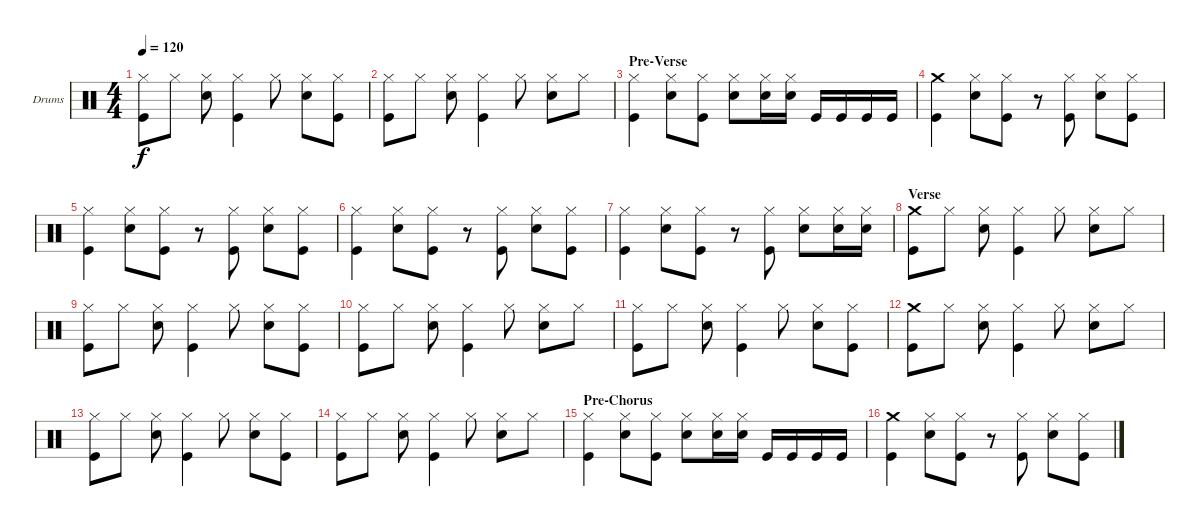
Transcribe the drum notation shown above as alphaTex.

\defaultSystemsLayout 4
\bracketExtendMode groupsimilarinstruments
\firstSystemTrackNameOrientation horizontal
\otherSystemsTrackNameOrientation horizontal
\track ("Drum" "Drums") {instrument percussion}
\staff {score}
\articulation defaults
\ts (4 4)
\tempo 120
\clef neutral
\scale
0.333333
\ks c
("Hi-Hat (closed)" "Kick (hit)").8{dy f} "Hi-Hat (closed)".8 ("Hi-Hat (closed)" "Snare (hit) 2").8 ("Hi-Hat (closed)" "Kick (hit)").4 "Hi-Hat (closed)".8 ("Hi-Hat (closed)" "Snare (hit) 2").8 ("Hi-Hat (closed)" "Kick (hit)").8 |
\scale
0.333333 ("Hi-Hat (closed)" "Kick (hit)").8 "Hi-Hat (closed)".8 ("Hi-Hat (closed)" "Snare (hit) 2").8 ("Hi-Hat (closed)" "Kick (hit)").4 "Hi-Hat (closed)".8 ("Hi-Hat (closed)" "Snare (hit) 2").8 "Hi-Hat (closed)".8 |
\section ("" "Pre-Verse")
\scale
0.333333 ("Hi-Hat (closed)" "Kick (hit)").4 ("Hi-Hat (closed)" "Snare (hit) 2").8 ("Hi-Hat (closed)" "Kick (hit)").8 ("Hi-Hat (closed)" "Snare (hit) 2").8 ("Hi-Hat (closed)" "Snare (hit) 2").16 ("Hi-Hat (closed)" "Snare (hit) 2").16 "Kick (hit)".16 "Kick (hit)".16 "Kick (hit)".16 "Kick (hit)".16 |
\scale
0.333333 ("Crash medium (hit)" "Kick (hit)").4 ("Hi-Hat (closed)" "Snare (hit) 2").8 ("Hi-Hat (closed)" "Kick (hit)").8 r.8 ("Hi-Hat (closed)" "Kick (hit)").8 ("Hi-Hat (closed)" "Snare (hit) 2").8 ("Hi-Hat (closed)" "Kick (hit)").8 |
\scale
0.333333 ("Hi-Hat (closed)" "Kick (hit)").4 ("Hi-Hat (closed)" "Snare (hit) 2").8 ("Hi-Hat (closed)" "Kick (hit)").8 r.8 ("Hi-Hat (closed)" "Kick (hit)").8 ("Hi-Hat (closed)" "Snare (hit) 2").8 ("Hi-Hat (closed)" "Kick (hit)").8 |
\scale
0.333333 ("Hi-Hat (closed)" "Kick (hit)").4 ("Hi-Hat (closed)" "Snare (hit) 2").8 ("Hi-Hat (closed)" "Kick (hit)").8 r.8 ("Hi-Hat (closed)" "Kick (hit)").8 ("Hi-Hat (closed)" "Snare (hit) 2").8 ("Hi-Hat (closed)" "Kick (hit)").8 |
\scale
0.333333 ("Hi-Hat (closed)" "Kick (hit)").4 ("Hi-Hat (closed)" "Snare (hit) 2").8 ("Hi-Hat (closed)" "Kick (hit)").8 r.8 ("Hi-Hat (closed)" "Kick (hit)").8 ("Hi-Hat (closed)" "Snare (hit) 2").8 ("Hi-Hat (closed)" "Snare (hit) 2").16 ("Hi-Hat (closed)" "Snare (hit) 2").16 |
\section ("" "Verse")
\scale
0.333333 ("Crash medium (hit)" "Kick (hit)").8 "Hi-Hat (closed)".8 ("Hi-Hat (closed)" "Snare (hit) 2").8 ("Hi-Hat (closed)" "Kick (hit)").4 "Hi-Hat (closed)".8 ("Hi-Hat (closed)" "Snare (hit) 2").8 "Hi-Hat (closed)".8 |
\scale
0.333333 ("Hi-Hat (closed)" "Kick (hit)").8 "Hi-Hat (closed)".8 ("Hi-Hat (closed)" "Snare (hit) 2").8 ("Hi-Hat (closed)" "Kick (hit)").4 "Hi-Hat (closed)".8 ("Hi-Hat (closed)" "Snare (hit) 2").8 ("Hi-Hat (closed)" "Kick (hit)").8 |
\scale
0.333333 ("Hi-Hat (closed)" "Kick (hit)").8 "Hi-Hat (closed)".8 ("Hi-Hat (closed)" "Snare (hit) 2").8 ("Hi-Hat (closed)" "Kick (hit)").4 "Hi-Hat (closed)".8 ("Hi-Hat (closed)" "Snare (hit) 2").8 "Hi-Hat (closed)".8 |
\scale
0.333333 ("Hi-Hat (closed)" "Kick (hit)").8 "Hi-Hat (closed)".8 ("Hi-Hat (closed)" "Snare (hit) 2").8 ("Hi-Hat (closed)" "Kick (hit)").4 "Hi-Hat (closed)".8 ("Hi-Hat (closed)" "Snare (hit) 2").8 ("Hi-Hat (closed)" "Kick (hit)").8 |
\scale
0.333333 ("Crash medium (hit)" "Kick (hit)").8 "Hi-Hat (closed)".8 ("Hi-Hat (closed)" "Snare (hit) 2").8 ("Hi-Hat (closed)" "Kick (hit)").4 "Hi-Hat (closed)".8 ("Hi-Hat (closed)" "Snare (hit) 2").8 "Hi-Hat (closed)".8 |
\scale
0.333333 ("Hi-Hat (closed)" "Kick (hit)").8 "Hi-Hat (closed)".8 ("Hi-Hat (closed)" "Snare (hit) 2").8 ("Hi-Hat (closed)" "Kick (hit)").4 "Hi-Hat (closed)".8 ("Hi-Hat (closed)" "Snare (hit) 2").8 ("Hi-Hat (closed)" "Kick (hit)").8 |
\scale
0.333333 ("Hi-Hat (closed)" "Kick (hit)").8 "Hi-Hat (closed)".8 ("Hi-Hat (closed)" "Snare (hit) 2").8 ("Hi-Hat (closed)" "Kick (hit)").4 "Hi-Hat (closed)".8 ("Hi-Hat (closed)" "Snare (hit) 2").8 "Hi-Hat (closed)".8 |
\section ("" "Pre-Chorus")
\scale
0.333333 ("Hi-Hat (closed)" "Kick (hit)").4 ("Hi-Hat (closed)" "Snare (hit) 2").8 ("Hi-Hat (closed)" "Kick (hit)").8 ("Hi-Hat (closed)" "Snare (hit) 2").8 ("Hi-Hat (closed)" "Snare (hit) 2").16 ("Hi-Hat (closed)" "Snare (hit) 2").16 "Kick (hit)".16 "Kick (hit)".16 "Kick (hit)".16 "Kick (hit)".16 |
\scale
0.333333 ("Crash medium (hit)" "Kick (hit)").4 ("Hi-Hat (closed)" "Snare (hit) 2").8 ("Hi-Hat (closed)" "Kick (hit)").8 r.8 ("Hi-Hat (closed)" "Kick (hit)").8 ("Hi-Hat (closed)" "Snare (hit) 2").8 ("Hi-Hat (closed)" "Kick (hit)").8
